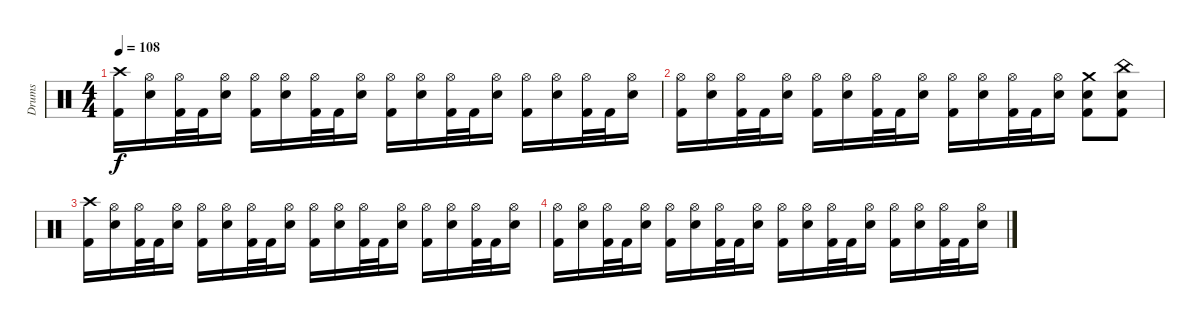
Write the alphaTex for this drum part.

\track ("Drums" "Drums") {instrument percussion}
\staff
\articulation defaults
\ts (4 4)
\tempo 108
\clef neutral
\ks c
("Crash high (hit)" "Kick (hit) 2").16{dy f} ("Hi-Hat (open)" "Electric Snare (hit)").16 ("Hi-Hat (open)" "Kick (hit) 2").32 "Kick (hit) 2".32 ("Hi-Hat (open)" "Electric Snare (hit)").16 ("Hi-Hat (open)" "Kick (hit) 2").16 ("Hi-Hat (open)" "Electric Snare (hit)").16 ("Hi-Hat (open)" "Kick (hit) 2").32 "Kick (hit) 2".32 ("Hi-Hat (open)" "Electric Snare (hit)").16 ("Hi-Hat (open)" "Kick (hit) 2").16 ("Hi-Hat (open)" "Electric Snare (hit)").16 ("Hi-Hat (open)" "Kick (hit) 2").32 "Kick (hit) 2".32 ("Hi-Hat (open)" "Electric Snare (hit)").16 ("Hi-Hat (open)" "Kick (hit) 2").16 ("Hi-Hat (open)" "Electric Snare (hit)").16 ("Hi-Hat (open)" "Kick (hit) 2").32 "Kick (hit) 2".32 ("Hi-Hat (open)" "Electric Snare (hit)").16 |
("Hi-Hat (open)" "Kick (hit) 2").16 ("Hi-Hat (open)" "Electric Snare (hit)").16 ("Hi-Hat (open)" "Kick (hit) 2").32 "Kick (hit) 2".32 ("Hi-Hat (open)" "Electric Snare (hit)").16 ("Hi-Hat (open)" "Kick (hit) 2").16 ("Hi-Hat (open)" "Electric Snare (hit)").16 ("Hi-Hat (open)" "Kick (hit) 2").32 "Kick (hit) 2".32 ("Hi-Hat (open)" "Electric Snare (hit)").16 ("Hi-Hat (open)" "Kick (hit) 2").16 ("Hi-Hat (open)" "Electric Snare (hit)").16 ("Hi-Hat (open)" "Kick (hit) 2").32 "Kick (hit) 2".32 ("Hi-Hat (open)" "Electric Snare (hit)").16 ("Crash medium (hit)" "Electric Snare (hit)" "Kick (hit) 2").8 ("China (hit)" "Electric Snare (hit)" "Kick (hit) 2").8 |
("Crash high (hit)" "Kick (hit) 2").16 ("Hi-Hat (open)" "Electric Snare (hit)").16 ("Hi-Hat (open)" "Kick (hit) 2").32 "Kick (hit) 2".32 ("Hi-Hat (open)" "Electric Snare (hit)").16 ("Hi-Hat (open)" "Kick (hit) 2").16 ("Hi-Hat (open)" "Electric Snare (hit)").16 ("Hi-Hat (open)" "Kick (hit) 2").32 "Kick (hit) 2".32 ("Hi-Hat (open)" "Electric Snare (hit)").16 ("Hi-Hat (open)" "Kick (hit) 2").16 ("Hi-Hat (open)" "Electric Snare (hit)").16 ("Hi-Hat (open)" "Kick (hit) 2").32 "Kick (hit) 2".32 ("Hi-Hat (open)" "Electric Snare (hit)").16 ("Hi-Hat (open)" "Kick (hit) 2").16 ("Hi-Hat (open)" "Electric Snare (hit)").16 ("Hi-Hat (open)" "Kick (hit) 2").32 "Kick (hit) 2".32 ("Hi-Hat (open)" "Electric Snare (hit)").16 |
("Hi-Hat (open)" "Kick (hit) 2").16 ("Hi-Hat (open)" "Electric Snare (hit)").16 ("Hi-Hat (open)" "Kick (hit) 2").32 "Kick (hit) 2".32 ("Hi-Hat (open)" "Electric Snare (hit)").16 ("Hi-Hat (open)" "Kick (hit) 2").16 ("Hi-Hat (open)" "Electric Snare (hit)").16 ("Hi-Hat (open)" "Kick (hit) 2").32 "Kick (hit) 2".32 ("Hi-Hat (open)" "Electric Snare (hit)").16 ("Hi-Hat (open)" "Kick (hit) 2").16 ("Hi-Hat (open)" "Electric Snare (hit)").16 ("Hi-Hat (open)" "Kick (hit) 2").32 "Kick (hit) 2".32 ("Hi-Hat (open)" "Electric Snare (hit)").16 ("Hi-Hat (open)" "Kick (hit) 2").16 ("Hi-Hat (open)" "Electric Snare (hit)").16 ("Hi-Hat (open)" "Kick (hit) 2").32 "Kick (hit) 2".32 ("Hi-Hat (open)" "Electric Snare (hit)").16
